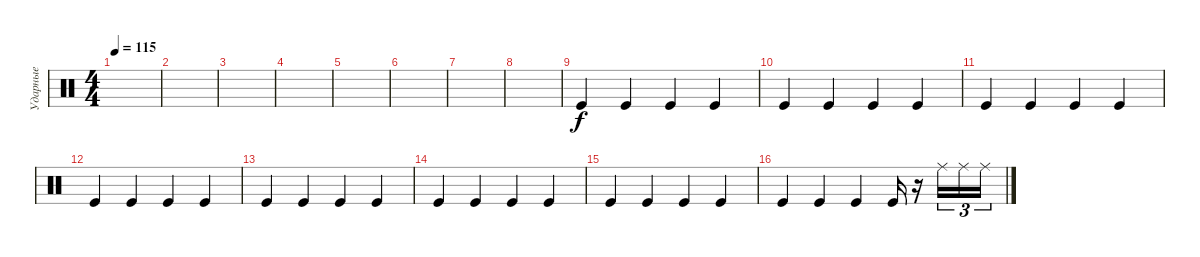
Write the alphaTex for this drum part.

\track ("Ударные" "Ударные") {instrument percussion}
\staff {score}
\articulation defaults
\ts (4 4)
\tempo 115
\clef neutral
\ks c
|
|
|
|
|
|
|
|
"Kick (hit)".4 "Kick (hit)".4 "Kick (hit)".4 "Kick (hit)".4 |
"Kick (hit)".4 "Kick (hit)".4 "Kick (hit)".4 "Kick (hit)".4 |
"Kick (hit)".4 "Kick (hit)".4 "Kick (hit)".4 "Kick (hit)".4 |
"Kick (hit)".4 "Kick (hit)".4 "Kick (hit)".4 "Kick (hit)".4 |
"Kick (hit)".4 "Kick (hit)".4 "Kick (hit)".4 "Kick (hit)".4 |
"Kick (hit)".4 "Kick (hit)".4 "Kick (hit)".4 "Kick (hit)".4 |
"Kick (hit)".4 "Kick (hit)".4 "Kick (hit)".4 "Kick (hit)".4 |
"Kick (hit)".4 "Kick (hit)".4 "Kick (hit)".4 "Kick (hit)".16 r.16 "Ride (middle)".16{tu (3 2)} "Ride (middle)".16{tu (3 2)} "Ride (middle)".16{tu (3 2)}
